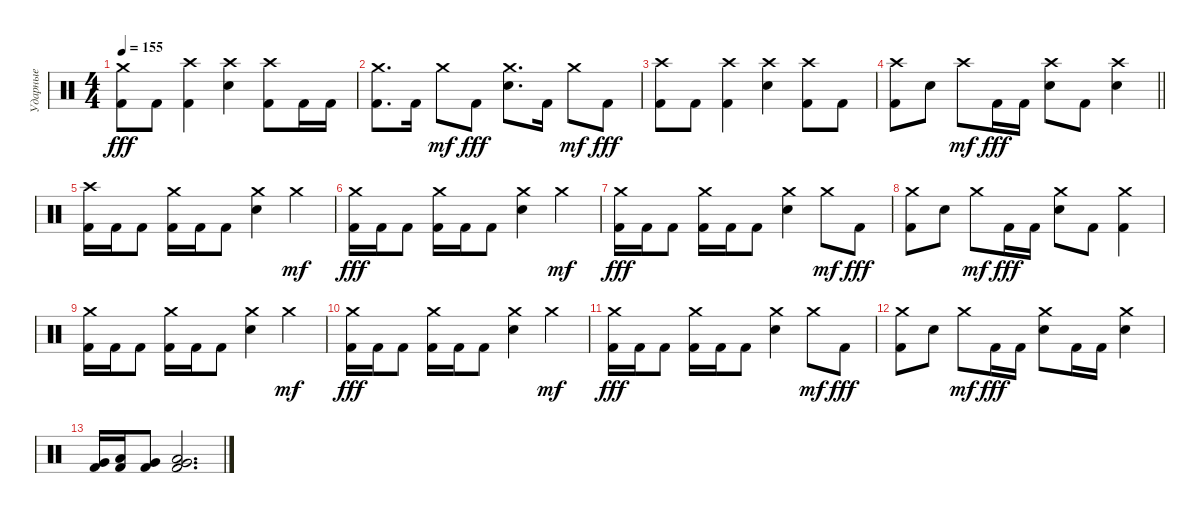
\track ("Ударные" "Ударные") {instrument percussion}
\staff {score}
\articulation defaults
\ts (4 4)
\tempo 155
\clef neutral
\ks c
("Crash medium (hit)" "Kick (hit) 2").8{dy fff} "Kick (hit) 2".8 ("Crash high (hit)" "Kick (hit) 2").4 ("Crash high (hit)" "Electric Snare (hit)").4 ("Crash high (hit)" "Kick (hit) 2").8 "Kick (hit) 2".16 "Kick (hit) 2".16 |
("Crash medium (hit)" "Kick (hit) 2").8{d} "Kick (hit) 2".16 "Crash medium (hit)".8{dy mf} "Kick (hit) 2".8{dy fff} ("Crash medium (hit)" "Electric Snare (hit)").8{d} "Kick (hit) 2".16 "Crash medium (hit)".8{dy mf} "Kick (hit) 2".8{dy fff} |
("Crash high (hit)" "Kick (hit) 2").8 "Kick (hit) 2".8 ("Crash high (hit)" "Kick (hit) 2").4 ("Crash high (hit)" "Electric Snare (hit)").4 ("Crash high (hit)" "Kick (hit) 2").8 "Kick (hit) 2".8 |
\barLineRight lightlight
("Crash high (hit)" "Kick (hit) 2").8 "Electric Snare (hit)".8 "Crash high (hit)".8{dy mf} "Kick (hit) 2".16{dy fff} "Kick (hit) 2".16 ("Crash high (hit)" "Electric Snare (hit)").8 "Kick (hit) 2".8 ("Crash high (hit)" "Electric Snare (hit)").4 |
\section ("" "")
("Crash high (hit)" "Kick (hit) 2").16 "Kick (hit) 2".16 "Kick (hit) 2".8 ("Crash medium (hit)" "Kick (hit) 2").16 "Kick (hit) 2".16 "Kick (hit) 2".8 ("Crash medium (hit)" "Electric Snare (hit)").4 "Crash medium (hit)".4{dy mf} |
("Crash medium (hit)" "Kick (hit) 2").16{dy fff} "Kick (hit) 2".16 "Kick (hit) 2".8 ("Crash medium (hit)" "Kick (hit) 2").16 "Kick (hit) 2".16 "Kick (hit) 2".8 ("Crash medium (hit)" "Electric Snare (hit)").4 "Crash medium (hit)".4{dy mf} |
("Crash medium (hit)" "Kick (hit) 2").16{dy fff} "Kick (hit) 2".16 "Kick (hit) 2".8 ("Crash medium (hit)" "Kick (hit) 2").16 "Kick (hit) 2".16 "Kick (hit) 2".8 ("Crash medium (hit)" "Electric Snare (hit)").4 "Crash medium (hit)".8{dy mf} "Kick (hit) 2".8{dy fff} |
("Crash medium (hit)" "Kick (hit) 2").8 "Electric Snare (hit)".8 "Crash medium (hit)".8{dy mf} "Kick (hit) 2".16{dy fff} "Kick (hit) 2".16 ("Crash medium (hit)" "Electric Snare (hit)").8 "Kick (hit) 2".8 ("Crash medium (hit)" "Kick (hit) 2").4 |
("Crash medium (hit)" "Kick (hit) 2").16 "Kick (hit) 2".16 "Kick (hit) 2".8 ("Crash medium (hit)" "Kick (hit) 2").16 "Kick (hit) 2".16 "Kick (hit) 2".8 ("Crash medium (hit)" "Electric Snare (hit)").4 "Crash medium (hit)".4{dy mf} |
("Crash medium (hit)" "Kick (hit) 2").16{dy fff} "Kick (hit) 2".16 "Kick (hit) 2".8 ("Crash medium (hit)" "Kick (hit) 2").16 "Kick (hit) 2".16 "Kick (hit) 2".8 ("Crash medium (hit)" "Electric Snare (hit)").4 "Crash medium (hit)".4{dy mf} |
("Crash medium (hit)" "Kick (hit) 2").16{dy fff} "Kick (hit) 2".16 "Kick (hit) 2".8 ("Crash medium (hit)" "Kick (hit) 2").16 "Kick (hit) 2".16 "Kick (hit) 2".8 ("Crash medium (hit)" "Electric Snare (hit)").4 "Crash medium (hit)".8{dy mf} "Kick (hit) 2".8{dy fff} |
("Crash medium (hit)" "Kick (hit) 2").8 "Electric Snare (hit)".8 "Crash medium (hit)".8{dy mf} "Kick (hit) 2".16{dy fff} "Kick (hit) 2".16 ("Crash medium (hit)" "Electric Snare (hit)").8 "Kick (hit) 2".16 "Kick (hit) 2".16 ("Crash medium (hit)" "Electric Snare (hit)").4 |
("Very Low Tom (hit)" "Kick (hit) 2").16 ("Low Tom (hit)" "Kick (hit) 2").16 ("Very Low Tom (hit)" "Kick (hit) 2").8 ("Low Tom (hit)" "Very Low Tom (hit)" "Kick (hit) 2").2{d}
